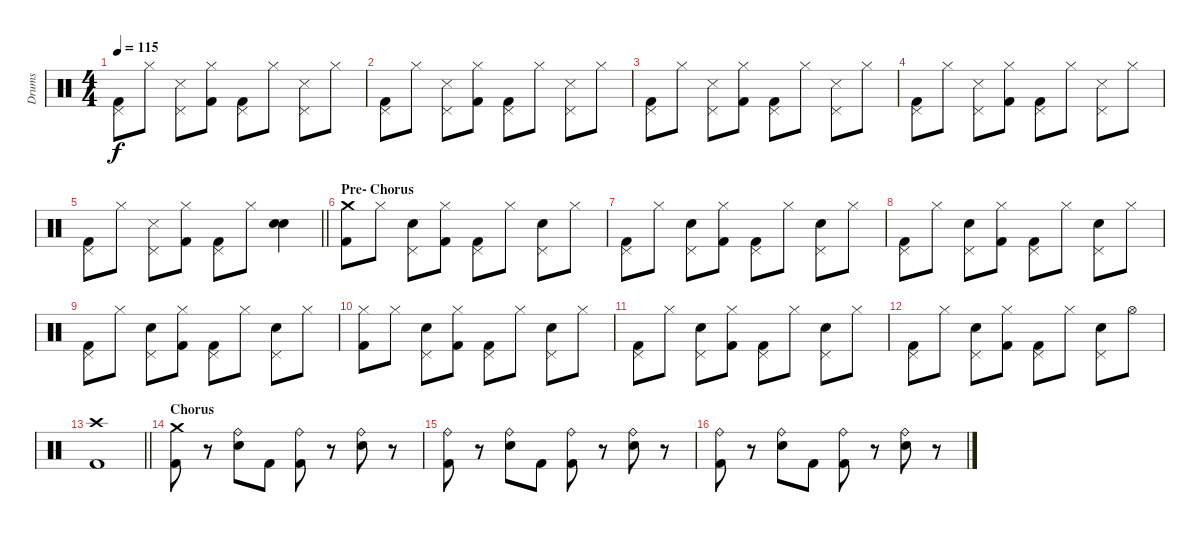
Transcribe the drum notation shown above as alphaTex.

\track ("Drums" "Drums") {instrument percussion}
\staff {score}
\articulation defaults
\ts (4 4)
\tempo 115
\clef neutral
\ks c
("Pedal Hi-Hat (hit)" "Kick (hit) 2").8{dy f} "Hi-Hat (closed)".8 ("Pedal Hi-Hat (hit)" "Snare (side stick) 3").8 ("Hi-Hat (closed)" "Kick (hit) 2").8 ("Pedal Hi-Hat (hit)" "Kick (hit) 2").8 "Hi-Hat (closed)".8 ("Pedal Hi-Hat (hit)" "Snare (side stick) 3").8 "Hi-Hat (closed)".8 |
("Pedal Hi-Hat (hit)" "Kick (hit) 2").8 "Hi-Hat (closed)".8 ("Pedal Hi-Hat (hit)" "Snare (side stick) 3").8 ("Hi-Hat (closed)" "Kick (hit) 2").8 ("Pedal Hi-Hat (hit)" "Kick (hit) 2").8 "Hi-Hat (closed)".8 ("Pedal Hi-Hat (hit)" "Snare (side stick) 3").8 "Hi-Hat (closed)".8 |
("Pedal Hi-Hat (hit)" "Kick (hit) 2").8 "Hi-Hat (closed)".8 ("Pedal Hi-Hat (hit)" "Snare (side stick) 3").8 ("Hi-Hat (closed)" "Kick (hit) 2").8 ("Pedal Hi-Hat (hit)" "Kick (hit) 2").8 "Hi-Hat (closed)".8 ("Pedal Hi-Hat (hit)" "Snare (side stick) 3").8 "Hi-Hat (closed)".8 |
("Pedal Hi-Hat (hit)" "Kick (hit) 2").8 "Hi-Hat (closed)".8 ("Pedal Hi-Hat (hit)" "Snare (side stick) 3").8 ("Hi-Hat (closed)" "Kick (hit) 2").8 ("Pedal Hi-Hat (hit)" "Kick (hit) 2").8 "Hi-Hat (closed)".8 ("Pedal Hi-Hat (hit)" "Snare (side stick) 3").8 "Hi-Hat (closed)".8 |
\barLineRight lightlight
("Pedal Hi-Hat (hit)" "Kick (hit) 2").8 "Hi-Hat (closed)".8 ("Pedal Hi-Hat (hit)" "Snare (side stick) 3").8 ("Hi-Hat (closed)" "Kick (hit) 2").8 ("Pedal Hi-Hat (hit)" "Kick (hit) 2").8 "Hi-Hat (closed)".8 ("Electric Snare (hit)" "Electric Snare (hit)").4{bd 120} |
\section ("" "Pre- Chorus")
("Crash medium (hit)" "Kick (hit) 2").8 "Hi-Hat (closed)".8 ("Pedal Hi-Hat (hit)" "Electric Snare (hit)").8 ("Hi-Hat (closed)" "Kick (hit) 2").8 ("Pedal Hi-Hat (hit)" "Kick (hit) 2").8 "Hi-Hat (closed)".8 ("Pedal Hi-Hat (hit)" "Electric Snare (hit)").8 "Hi-Hat (closed)".8 |
("Pedal Hi-Hat (hit)" "Kick (hit) 2").8 "Hi-Hat (closed)".8 ("Pedal Hi-Hat (hit)" "Electric Snare (hit)").8 ("Hi-Hat (closed)" "Kick (hit) 2").8 ("Pedal Hi-Hat (hit)" "Kick (hit) 2").8 "Hi-Hat (closed)".8 ("Pedal Hi-Hat (hit)" "Electric Snare (hit)").8 "Hi-Hat (closed)".8 |
("Pedal Hi-Hat (hit)" "Kick (hit) 2").8 "Hi-Hat (closed)".8 ("Pedal Hi-Hat (hit)" "Electric Snare (hit)").8 ("Hi-Hat (closed)" "Kick (hit) 2").8 ("Pedal Hi-Hat (hit)" "Kick (hit) 2").8 "Hi-Hat (closed)".8 ("Pedal Hi-Hat (hit)" "Electric Snare (hit)").8 "Hi-Hat (closed)".8 |
("Pedal Hi-Hat (hit)" "Kick (hit) 2").8 "Hi-Hat (closed)".8 ("Pedal Hi-Hat (hit)" "Electric Snare (hit)").8 ("Hi-Hat (closed)" "Kick (hit) 2").8 ("Pedal Hi-Hat (hit)" "Kick (hit) 2").8 "Hi-Hat (closed)".8 ("Pedal Hi-Hat (hit)" "Electric Snare (hit)").8 "Hi-Hat (closed)".8 |
("Hi-Hat (closed)" "Kick (hit) 2").8 "Hi-Hat (closed)".8 ("Pedal Hi-Hat (hit)" "Electric Snare (hit)").8 ("Hi-Hat (closed)" "Kick (hit) 2").8 ("Pedal Hi-Hat (hit)" "Kick (hit) 2").8 "Hi-Hat (closed)".8 ("Pedal Hi-Hat (hit)" "Electric Snare (hit)").8 "Hi-Hat (closed)".8 |
("Pedal Hi-Hat (hit)" "Kick (hit) 2").8 "Hi-Hat (closed)".8 ("Pedal Hi-Hat (hit)" "Electric Snare (hit)").8 ("Hi-Hat (closed)" "Kick (hit) 2").8 ("Pedal Hi-Hat (hit)" "Kick (hit) 2").8 "Hi-Hat (closed)".8 ("Pedal Hi-Hat (hit)" "Electric Snare (hit)").8 "Hi-Hat (closed)".8 |
("Pedal Hi-Hat (hit)" "Kick (hit) 2").8 "Hi-Hat (closed)".8 ("Pedal Hi-Hat (hit)" "Electric Snare (hit)").8 ("Hi-Hat (closed)" "Kick (hit) 2").8 ("Pedal Hi-Hat (hit)" "Kick (hit) 2").8 "Hi-Hat (closed)".8 ("Pedal Hi-Hat (hit)" "Electric Snare (hit)").8 "Hi-Hat (open)".8 |
\barLineRight lightlight
("Crash high (hit)" "Kick (hit) 2").1 |
\section ("" "Chorus")
("Crash medium (hit)" "Kick (hit) 2").8 r.8 ("Ride (bell)" "Electric Snare (hit)").8 "Kick (hit) 2".8 ("Ride (bell)" "Kick (hit) 2").8 r.8 ("Ride (bell)" "Electric Snare (hit)").8 r.8 |
("Ride (bell)" "Kick (hit) 2").8 r.8 ("Ride (bell)" "Electric Snare (hit)").8 "Kick (hit) 2".8 ("Ride (bell)" "Kick (hit) 2").8 r.8 ("Ride (bell)" "Electric Snare (hit)").8 r.8 |
("Ride (bell)" "Kick (hit) 2").8 r.8 ("Ride (bell)" "Electric Snare (hit)").8 "Kick (hit) 2".8 ("Ride (bell)" "Kick (hit) 2").8 r.8 ("Ride (bell)" "Electric Snare (hit)").8 r.8
